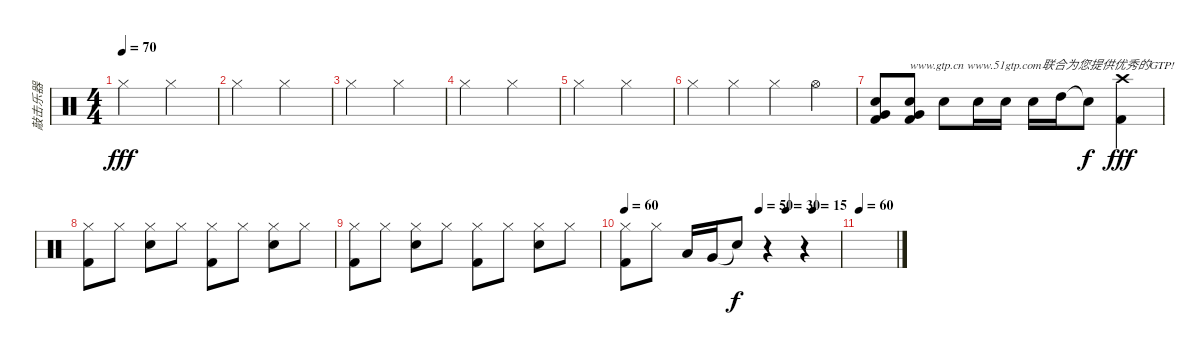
\track ("敲击乐器" "敲击乐器") {instrument percussion}
\staff {score}
\articulation defaults
\ts (4 4)
\tempo 70
\clef neutral
\ks c "Hi-Hat (closed)".2{dy fff} "Hi-Hat (closed)".2
|
"Hi-Hat (closed)".2 "Hi-Hat (closed)".2 |
"Hi-Hat (closed)".2 "Hi-Hat (closed)".2 |
"Hi-Hat (closed)".2 "Hi-Hat (closed)".2 |
"Hi-Hat (closed)".2 "Hi-Hat (closed)".2 |
"Hi-Hat (closed)".4 "Hi-Hat (closed)".4 "Hi-Hat (closed)".4 "Hi-Hat (open)".4 |
("Electric Snare (hit)" "Very Low Tom (hit)" "Kick (hit) 2").8 ("Electric Snare (hit)" "Very Low Tom (hit)" "Kick (hit) 2").8{txt "www.gtp.cn www.51gtp.com联合为您提供优秀的GTP!"} "Electric Snare (hit)".8 "Electric Snare (hit)".16 "Electric Snare (hit)".16 "Electric Snare (hit)".16 "High Tom (hit)".16 "Snare (hit)"{t}.8{dy f} ("Crash high (hit)" "Kick (hit) 2").4{dy fff} |
("Hi-Hat (closed)" "Kick (hit) 2").8 "Hi-Hat (closed)".8 ("Hi-Hat (closed)" "Electric Snare (hit)").8 "Hi-Hat (closed)".8 ("Hi-Hat (closed)" "Kick (hit) 2").8 "Hi-Hat (closed)".8 ("Hi-Hat (closed)" "Electric Snare (hit)").8 "Hi-Hat (closed)".8 |
("Hi-Hat (closed)" "Kick (hit) 2").8 "Hi-Hat (closed)".8 ("Hi-Hat (closed)" "Electric Snare (hit)").8 "Hi-Hat (closed)".8 ("Hi-Hat (closed)" "Kick (hit) 2").8 "Hi-Hat (closed)".8 ("Hi-Hat (closed)" "Electric Snare (hit)").8 "Hi-Hat (closed)".8 |
\tempo 60
\tempo (50 0.625)
\tempo (30 0.75)
\tempo (15 0.875)
("Hi-Hat (closed)" "Kick (hit) 2").8 "Hi-Hat (closed)".8 "Low Tom (hit)".16 "Very Low Tom (hit)".16 "Snare (hit)"{t}.8{dy f} r.4 r.4 |
\tempo 60
